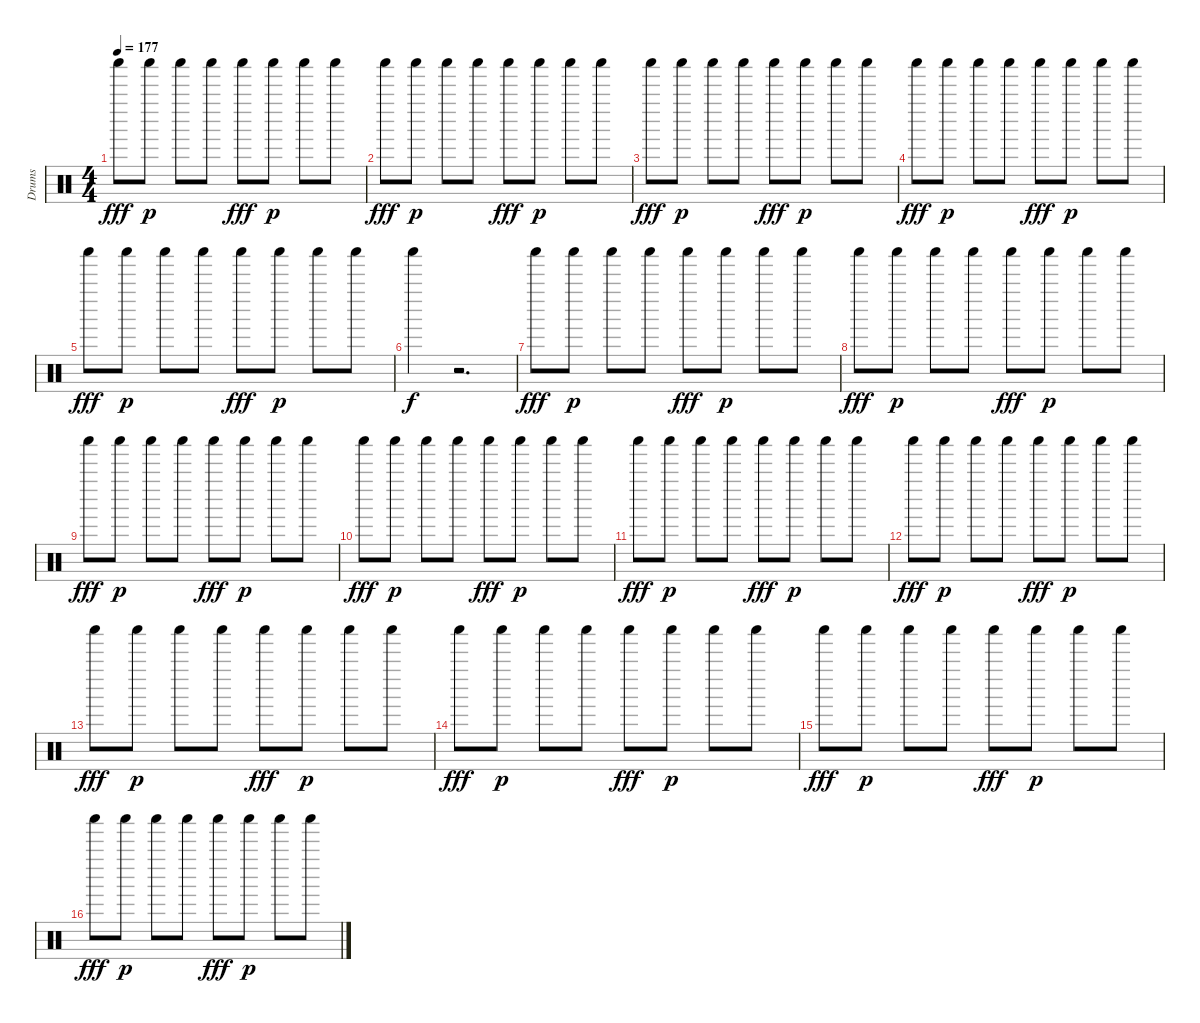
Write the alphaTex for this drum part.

\track ("Drums" "Drums") {instrument percussion}
\staff {score}
\articulation defaults
\ts (4 4)
\tempo 177
\clef neutral
\ks c "Shaker (hit)".8{dy fff} "Shaker (hit)".8{dy p} "Shaker (hit)".8 "Shaker (hit)".8 "Shaker (hit)".8{dy fff} "Shaker (hit)".8{dy p} "Shaker (hit)".8 "Shaker (hit)".8
|
"Shaker (hit)".8{dy fff} "Shaker (hit)".8{dy p} "Shaker (hit)".8 "Shaker (hit)".8 "Shaker (hit)".8{dy fff} "Shaker (hit)".8{dy p} "Shaker (hit)".8 "Shaker (hit)".8 |
"Shaker (hit)".8{dy fff} "Shaker (hit)".8{dy p} "Shaker (hit)".8 "Shaker (hit)".8 "Shaker (hit)".8{dy fff} "Shaker (hit)".8{dy p} "Shaker (hit)".8 "Shaker (hit)".8 |
"Shaker (hit)".8{dy fff} "Shaker (hit)".8{dy p} "Shaker (hit)".8 "Shaker (hit)".8 "Shaker (hit)".8{dy fff} "Shaker (hit)".8{dy p} "Shaker (hit)".8 "Shaker (hit)".8 |
"Shaker (hit)".8{dy fff} "Shaker (hit)".8{dy p} "Shaker (hit)".8 "Shaker (hit)".8 "Shaker (hit)".8{dy fff} "Shaker (hit)".8{dy p} "Shaker (hit)".8 "Shaker (hit)".8 |
"Shaker (hit)".4{dy f} r.2{d} |
"Shaker (hit)".8{dy fff} "Shaker (hit)".8{dy p} "Shaker (hit)".8 "Shaker (hit)".8 "Shaker (hit)".8{dy fff} "Shaker (hit)".8{dy p} "Shaker (hit)".8 "Shaker (hit)".8 |
"Shaker (hit)".8{dy fff} "Shaker (hit)".8{dy p} "Shaker (hit)".8 "Shaker (hit)".8 "Shaker (hit)".8{dy fff} "Shaker (hit)".8{dy p} "Shaker (hit)".8 "Shaker (hit)".8 |
"Shaker (hit)".8{dy fff} "Shaker (hit)".8{dy p} "Shaker (hit)".8 "Shaker (hit)".8 "Shaker (hit)".8{dy fff} "Shaker (hit)".8{dy p} "Shaker (hit)".8 "Shaker (hit)".8 |
"Shaker (hit)".8{dy fff} "Shaker (hit)".8{dy p} "Shaker (hit)".8 "Shaker (hit)".8 "Shaker (hit)".8{dy fff} "Shaker (hit)".8{dy p} "Shaker (hit)".8 "Shaker (hit)".8 |
"Shaker (hit)".8{dy fff} "Shaker (hit)".8{dy p} "Shaker (hit)".8 "Shaker (hit)".8 "Shaker (hit)".8{dy fff} "Shaker (hit)".8{dy p} "Shaker (hit)".8 "Shaker (hit)".8 |
"Shaker (hit)".8{dy fff} "Shaker (hit)".8{dy p} "Shaker (hit)".8 "Shaker (hit)".8 "Shaker (hit)".8{dy fff} "Shaker (hit)".8{dy p} "Shaker (hit)".8 "Shaker (hit)".8 |
"Shaker (hit)".8{dy fff} "Shaker (hit)".8{dy p} "Shaker (hit)".8 "Shaker (hit)".8 "Shaker (hit)".8{dy fff} "Shaker (hit)".8{dy p} "Shaker (hit)".8 "Shaker (hit)".8 |
"Shaker (hit)".8{dy fff} "Shaker (hit)".8{dy p} "Shaker (hit)".8 "Shaker (hit)".8 "Shaker (hit)".8{dy fff} "Shaker (hit)".8{dy p} "Shaker (hit)".8 "Shaker (hit)".8 |
"Shaker (hit)".8{dy fff} "Shaker (hit)".8{dy p} "Shaker (hit)".8 "Shaker (hit)".8 "Shaker (hit)".8{dy fff} "Shaker (hit)".8{dy p} "Shaker (hit)".8 "Shaker (hit)".8 |
"Shaker (hit)".8{dy fff} "Shaker (hit)".8{dy p} "Shaker (hit)".8 "Shaker (hit)".8 "Shaker (hit)".8{dy fff} "Shaker (hit)".8{dy p} "Shaker (hit)".8 "Shaker (hit)".8
